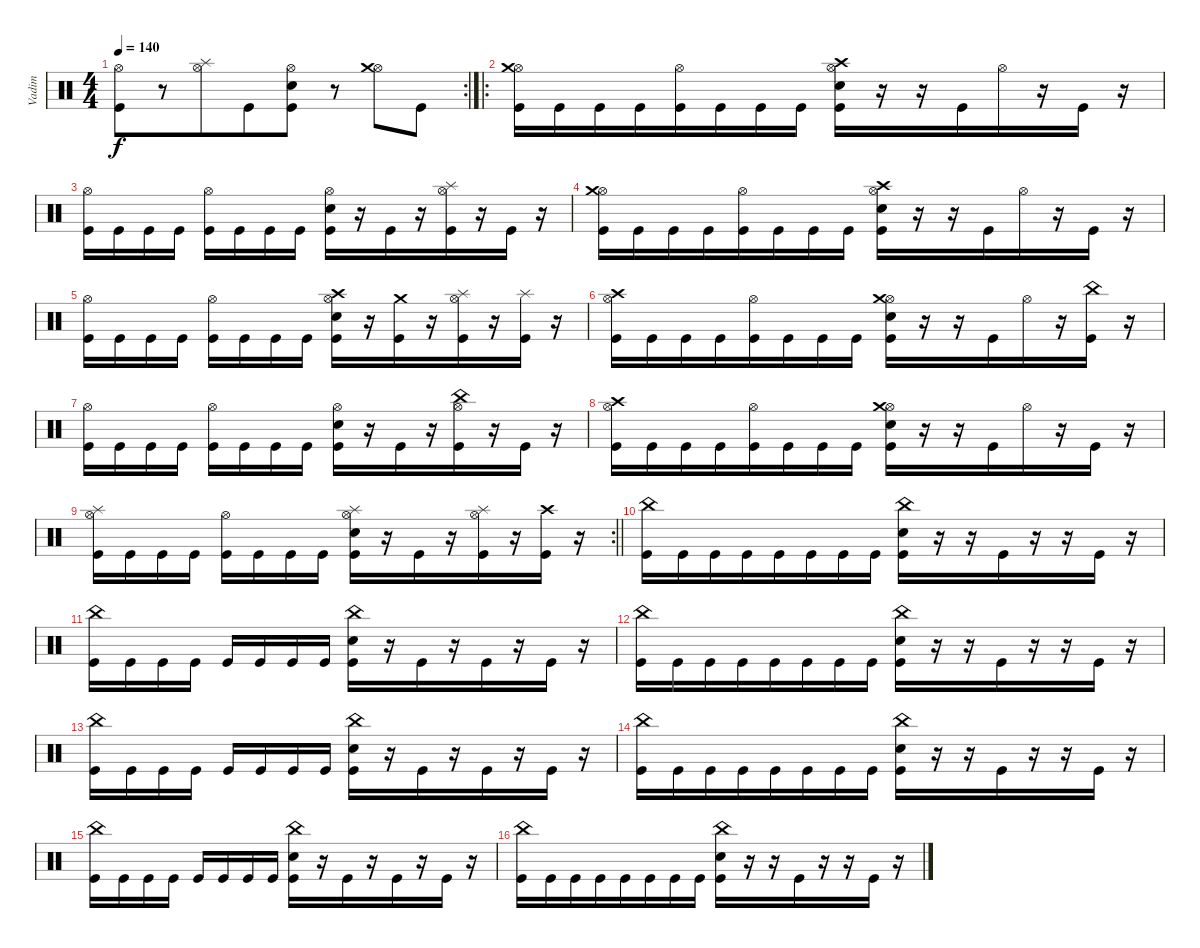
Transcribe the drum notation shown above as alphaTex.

\track ("Vadim" "Vadim") {instrument percussion}
\staff {score}
\articulation defaults
\rc 2
\ts (4 4)
\tempo 140
\clef neutral
\ks c
("Hi-Hat (open)" "Kick (hit)").8{dy f beam merge} r.8 ("Hi-Hat (open)" "Splash (hit)").8{beam merge} "Kick (hit)".8{beam merge} ("Hi-Hat (open)" "Electric Snare (hit)" "Kick (hit)").8 r.8 ("Hi-Hat (open)" "Crash medium (hit)").8 "Kick (hit)".8 |
\ro
("Hi-Hat (open)" "Crash medium (hit)" "Kick (hit)").16 "Kick (hit)".16 "Kick (hit)".16{beam merge} "Kick (hit)".16{beam merge} ("Hi-Hat (open)" "Kick (hit)").16 "Kick (hit)".16 "Kick (hit)".16 "Kick (hit)".16 ("Hi-Hat (open)" "Crash high (hit)" "Electric Snare (hit)" "Kick (hit)").16 r.16 r.16 "Kick (hit)".16{beam merge} "Hi-Hat (open)".16{beam merge} r.16 "Kick (hit)".16{beam merge} r.16 |
("Hi-Hat (open)" "Kick (hit)").16 "Kick (hit)".16{beam merge} "Kick (hit)".16 "Kick (hit)".16 ("Hi-Hat (open)" "Kick (hit)").16 "Kick (hit)".16 "Kick (hit)".16{beam merge} "Kick (hit)".16 ("Hi-Hat (open)" "Electric Snare (hit)" "Kick (hit)").16{beam merge} r.16 "Kick (hit)".16{beam merge} r.16 ("Hi-Hat (open)" "Splash (hit)" "Kick (hit)").16{beam merge} r.16 "Kick (hit)".16{beam merge} r.16 |
("Hi-Hat (open)" "Crash medium (hit)" "Kick (hit)").16 "Kick (hit)".16 "Kick (hit)".16{beam merge} "Kick (hit)".16{beam merge} ("Hi-Hat (open)" "Kick (hit)").16 "Kick (hit)".16 "Kick (hit)".16 "Kick (hit)".16 ("Hi-Hat (open)" "Crash high (hit)" "Electric Snare (hit)" "Kick (hit)").16 r.16 r.16 "Kick (hit)".16{beam merge} "Hi-Hat (open)".16{beam merge} r.16 "Kick (hit)".16{beam merge} r.16 |
("Hi-Hat (open)" "Kick (hit)").16 "Kick (hit)".16{beam merge} "Kick (hit)".16 "Kick (hit)".16 ("Hi-Hat (open)" "Kick (hit)").16 "Kick (hit)".16 "Kick (hit)".16{beam merge} "Kick (hit)".16 ("Hi-Hat (open)" "Crash high (hit)" "Electric Snare (hit)" "Kick (hit)").16{beam merge} r.16 ("Crash medium (hit)" "Kick (hit)").16{beam merge} r.16 ("Hi-Hat (open)" "Splash (hit)" "Kick (hit)").16{beam merge} r.16 ("Splash (hit)" "Kick (hit)").16{beam merge} r.16 |
("Hi-Hat (open)" "Crash high (hit)" "Kick (hit)").16 "Kick (hit)".16 "Kick (hit)".16{beam merge} "Kick (hit)".16{beam merge} ("Hi-Hat (open)" "Kick (hit)").16 "Kick (hit)".16 "Kick (hit)".16 "Kick (hit)".16 ("Hi-Hat (open)" "Crash medium (hit)" "Electric Snare (hit)" "Kick (hit)").16 r.16 r.16 "Kick (hit)".16{beam merge} "Hi-Hat (open)".16{beam merge} r.16 ("China (hit)" "Kick (hit)").16{beam merge} r.16 |
("Hi-Hat (open)" "Kick (hit)").16 "Kick (hit)".16{beam merge} "Kick (hit)".16 "Kick (hit)".16 ("Hi-Hat (open)" "Kick (hit)").16 "Kick (hit)".16 "Kick (hit)".16{beam merge} "Kick (hit)".16 ("Hi-Hat (open)" "Electric Snare (hit)" "Kick (hit)").16{beam merge} r.16 "Kick (hit)".16{beam merge} r.16 ("Hi-Hat (open)" "China (hit)" "Kick (hit)").16{beam merge} r.16 "Kick (hit)".16{beam merge} r.16 |
("Hi-Hat (open)" "Crash high (hit)" "Kick (hit)").16 "Kick (hit)".16 "Kick (hit)".16{beam merge} "Kick (hit)".16{beam merge} ("Hi-Hat (open)" "Kick (hit)").16 "Kick (hit)".16 "Kick (hit)".16 "Kick (hit)".16 ("Hi-Hat (open)" "Crash medium (hit)" "Electric Snare (hit)" "Kick (hit)").16 r.16 r.16 "Kick (hit)".16{beam merge} "Hi-Hat (open)".16{beam merge} r.16 "Kick (hit)".16{beam merge} r.16 |
\rc 2
\barLineRight lightlight
("Hi-Hat (open)" "Splash (hit)" "Kick (hit)").16 "Kick (hit)".16{beam merge} "Kick (hit)".16 "Kick (hit)".16 ("Hi-Hat (open)" "Kick (hit)").16 "Kick (hit)".16 "Kick (hit)".16{beam merge} "Kick (hit)".16 ("Hi-Hat (open)" "Splash (hit)" "Electric Snare (hit)" "Kick (hit)").16{beam merge} r.16 "Kick (hit)".16{beam merge} r.16 ("Hi-Hat (open)" "Splash (hit)" "Kick (hit)").16{beam merge} r.16 ("Crash high (hit)" "Kick (hit)").16{beam merge} r.16 |
("China (hit)" "Kick (hit)").16 "Kick (hit)".16 "Kick (hit)".16{beam merge} "Kick (hit)".16{beam merge} "Kick (hit)".16 "Kick (hit)".16 "Kick (hit)".16 "Kick (hit)".16 ("China (hit)" "Electric Snare (hit)" "Kick (hit)").16 r.16 r.16 "Kick (hit)".16{beam merge} r.16{beam merge} r.16 "Kick (hit)".16{beam merge} r.16 |
("China (hit)" "Kick (hit)").16 "Kick (hit)".16{beam merge} "Kick (hit)".16 "Kick (hit)".16 "Kick (hit)".16 "Kick (hit)".16 "Kick (hit)".16{beam merge} "Kick (hit)".16 ("China (hit)" "Electric Snare (hit)" "Kick (hit)").16{beam merge} r.16 "Kick (hit)".16{beam merge} r.16 "Kick (hit)".16{beam merge} r.16 "Kick (hit)".16{beam merge} r.16 |
("China (hit)" "Kick (hit)").16 "Kick (hit)".16 "Kick (hit)".16{beam merge} "Kick (hit)".16{beam merge} "Kick (hit)".16 "Kick (hit)".16 "Kick (hit)".16 "Kick (hit)".16 ("China (hit)" "Electric Snare (hit)" "Kick (hit)").16 r.16 r.16 "Kick (hit)".16{beam merge} r.16{beam merge} r.16 "Kick (hit)".16{beam merge} r.16 |
("China (hit)" "Kick (hit)").16 "Kick (hit)".16{beam merge} "Kick (hit)".16 "Kick (hit)".16 "Kick (hit)".16 "Kick (hit)".16 "Kick (hit)".16{beam merge} "Kick (hit)".16 ("China (hit)" "Electric Snare (hit)" "Kick (hit)").16{beam merge} r.16 "Kick (hit)".16{beam merge} r.16 "Kick (hit)".16{beam merge} r.16 "Kick (hit)".16{beam merge} r.16 |
("China (hit)" "Kick (hit)").16 "Kick (hit)".16 "Kick (hit)".16{beam merge} "Kick (hit)".16{beam merge} "Kick (hit)".16 "Kick (hit)".16 "Kick (hit)".16 "Kick (hit)".16 ("China (hit)" "Electric Snare (hit)" "Kick (hit)").16 r.16 r.16 "Kick (hit)".16{beam merge} r.16{beam merge} r.16 "Kick (hit)".16{beam merge} r.16 |
("China (hit)" "Kick (hit)").16 "Kick (hit)".16{beam merge} "Kick (hit)".16 "Kick (hit)".16 "Kick (hit)".16 "Kick (hit)".16 "Kick (hit)".16{beam merge} "Kick (hit)".16 ("China (hit)" "Electric Snare (hit)" "Kick (hit)").16{beam merge} r.16 "Kick (hit)".16{beam merge} r.16 "Kick (hit)".16{beam merge} r.16 "Kick (hit)".16{beam merge} r.16 |
("China (hit)" "Kick (hit)").16 "Kick (hit)".16 "Kick (hit)".16{beam merge} "Kick (hit)".16{beam merge} "Kick (hit)".16 "Kick (hit)".16 "Kick (hit)".16 "Kick (hit)".16 ("China (hit)" "Electric Snare (hit)" "Kick (hit)").16 r.16 r.16 "Kick (hit)".16{beam merge} r.16{beam merge} r.16 "Kick (hit)".16{beam merge} r.16
